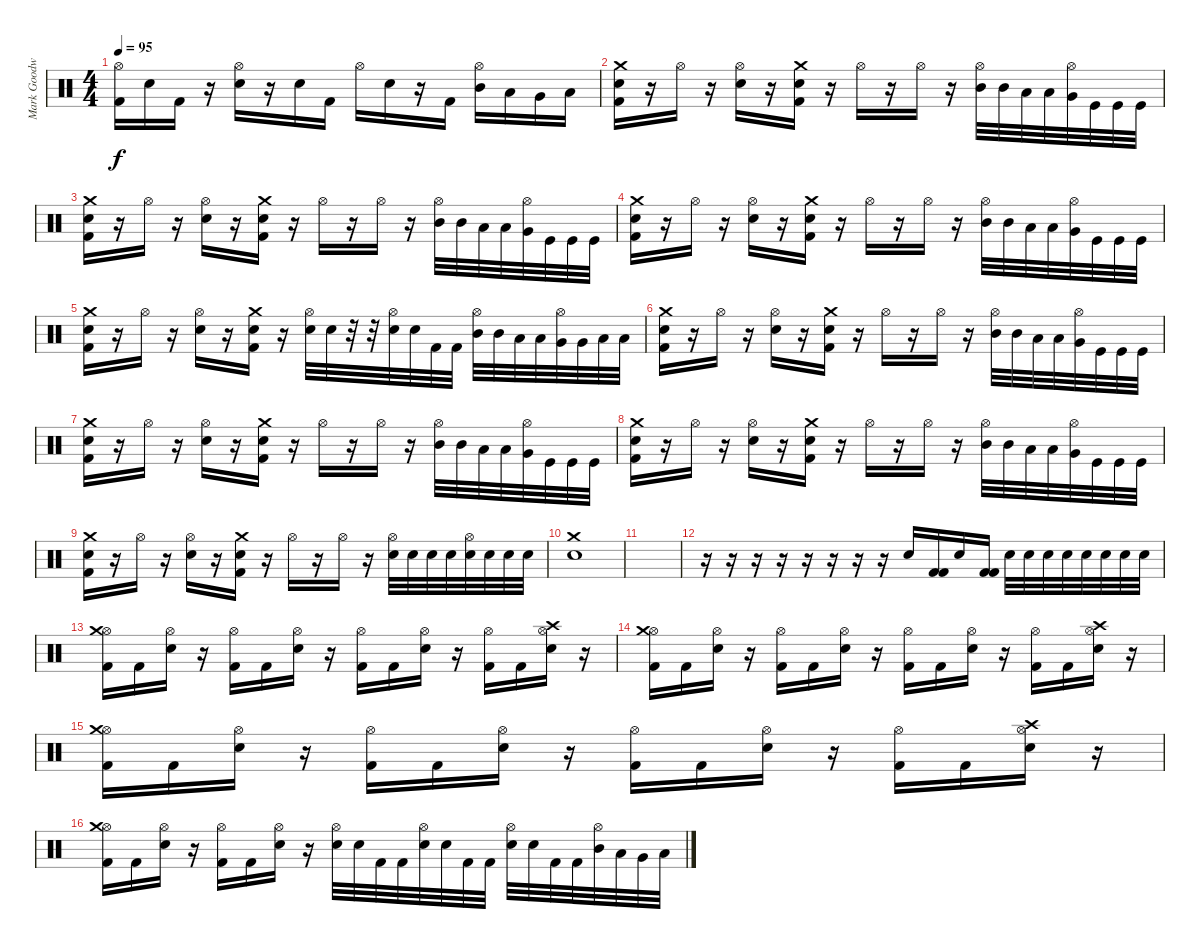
\track ("Mark Goodwin" "Mark Goodw") {instrument percussion}
\staff {score}
\articulation defaults
\ts (4 4)
\tempo 95
\clef neutral
\ks c
("Hi-Hat (open)" "Kick (hit) 2").16{dy f} "Electric Snare (hit)".16 "Kick (hit) 2".16 r.16 ("Hi-Hat (open)" "Electric Snare (hit)").16 r.16 "Electric Snare (hit)".16 "Kick (hit) 2".16 "Hi-Hat (open)".16 "Electric Snare (hit)".16 r.16 "Kick (hit) 2".16 ("Hi-Hat (open)" "Mid Tom (hit)").16 "Low Tom (hit)".16 "Very Low Tom (hit)".16 "Low Floor Tom (hit)".16 |
("Crash medium (hit)" "Electric Snare (hit)" "Kick (hit) 2").16 r.16 "Hi-Hat (open)".16 r.16 ("Hi-Hat (open)" "Electric Snare (hit)").16 r.16 ("Crash medium (hit)" "Electric Snare (hit)" "Kick (hit) 2").16 r.16 "Hi-Hat (open)".16 r.16 "Hi-Hat (open)".16 r.16 ("Hi-Hat (open)" "Mid Tom (hit)").32 "Mid Tom (hit)".32 "Low Tom (hit)".32 "Low Tom (hit)".32 ("Hi-Hat (open)" "Very Low Tom (hit)").32 "Kick (hit)".32 "Kick (hit)".32 "Kick (hit)".32 |
("Crash medium (hit)" "Electric Snare (hit)" "Kick (hit) 2").16 r.16 "Hi-Hat (open)".16 r.16 ("Hi-Hat (open)" "Electric Snare (hit)").16 r.16 ("Crash medium (hit)" "Electric Snare (hit)" "Kick (hit) 2").16 r.16 "Hi-Hat (open)".16 r.16 "Hi-Hat (open)".16 r.16 ("Hi-Hat (open)" "Mid Tom (hit)").32 "Mid Tom (hit)".32 "Low Tom (hit)".32 "Low Tom (hit)".32 ("Hi-Hat (open)" "Very Low Tom (hit)").32 "Kick (hit)".32 "Kick (hit)".32 "Kick (hit)".32 |
("Crash medium (hit)" "Electric Snare (hit)" "Kick (hit) 2").16 r.16 "Hi-Hat (open)".16 r.16 ("Hi-Hat (open)" "Electric Snare (hit)").16 r.16 ("Crash medium (hit)" "Electric Snare (hit)" "Kick (hit) 2").16 r.16 "Hi-Hat (open)".16 r.16 "Hi-Hat (open)".16 r.16 ("Hi-Hat (open)" "Mid Tom (hit)").32 "Mid Tom (hit)".32 "Low Tom (hit)".32 "Low Tom (hit)".32 ("Hi-Hat (open)" "Very Low Tom (hit)").32 "Kick (hit)".32 "Kick (hit)".32 "Kick (hit)".32 |
("Crash medium (hit)" "Electric Snare (hit)" "Kick (hit) 2").16 r.16 "Hi-Hat (open)".16 r.16 ("Hi-Hat (open)" "Electric Snare (hit)").16 r.16 ("Crash medium (hit)" "Electric Snare (hit)" "Kick (hit) 2").16 r.16 ("Hi-Hat (open)" "Electric Snare (hit)").32 "Electric Snare (hit)".32 r.32 r.32 ("Hi-Hat (open)" "Electric Snare (hit)").32 "Electric Snare (hit)".32 "Kick (hit) 2".32 "Kick (hit) 2".32 ("Hi-Hat (open)" "Mid Tom (hit)").32 "Mid Tom (hit)".32 "Low Tom (hit)".32 "Low Tom (hit)".32 ("Hi-Hat (open)" "Very Low Tom (hit)").32 "Very Low Tom (hit)".32 "Low Floor Tom (hit)".32 "Low Floor Tom (hit)".32 |
("Crash medium (hit)" "Electric Snare (hit)" "Kick (hit) 2").16 r.16 "Hi-Hat (open)".16 r.16 ("Hi-Hat (open)" "Electric Snare (hit)").16 r.16 ("Crash medium (hit)" "Electric Snare (hit)" "Kick (hit) 2").16 r.16 "Hi-Hat (open)".16 r.16 "Hi-Hat (open)".16 r.16 ("Hi-Hat (open)" "Mid Tom (hit)").32 "Mid Tom (hit)".32 "Low Tom (hit)".32 "Low Tom (hit)".32 ("Hi-Hat (open)" "Very Low Tom (hit)").32 "Kick (hit)".32 "Kick (hit)".32 "Kick (hit)".32 |
("Crash medium (hit)" "Electric Snare (hit)" "Kick (hit) 2").16 r.16 "Hi-Hat (open)".16 r.16 ("Hi-Hat (open)" "Electric Snare (hit)").16 r.16 ("Crash medium (hit)" "Electric Snare (hit)" "Kick (hit) 2").16 r.16 "Hi-Hat (open)".16 r.16 "Hi-Hat (open)".16 r.16 ("Hi-Hat (open)" "Mid Tom (hit)").32 "Mid Tom (hit)".32 "Low Tom (hit)".32 "Low Tom (hit)".32 ("Hi-Hat (open)" "Very Low Tom (hit)").32 "Kick (hit)".32 "Kick (hit)".32 "Kick (hit)".32 |
("Crash medium (hit)" "Electric Snare (hit)" "Kick (hit) 2").16 r.16 "Hi-Hat (open)".16 r.16 ("Hi-Hat (open)" "Electric Snare (hit)").16 r.16 ("Crash medium (hit)" "Electric Snare (hit)" "Kick (hit) 2").16 r.16 "Hi-Hat (open)".16 r.16 "Hi-Hat (open)".16 r.16 ("Hi-Hat (open)" "Mid Tom (hit)").32 "Mid Tom (hit)".32 "Low Tom (hit)".32 "Low Tom (hit)".32 ("Hi-Hat (open)" "Very Low Tom (hit)").32 "Kick (hit)".32 "Kick (hit)".32 "Kick (hit)".32 |
("Crash medium (hit)" "Electric Snare (hit)" "Kick (hit) 2").16 r.16 "Hi-Hat (open)".16 r.16 ("Hi-Hat (open)" "Electric Snare (hit)").16 r.16 ("Crash medium (hit)" "Electric Snare (hit)" "Kick (hit) 2").16 r.16 "Hi-Hat (open)".16 r.16 "Hi-Hat (open)".16 r.16 ("Hi-Hat (open)" "Electric Snare (hit)").32 "Electric Snare (hit)".32 "Electric Snare (hit)".32 "Electric Snare (hit)".32 ("Hi-Hat (open)" "Electric Snare (hit)").32 "Electric Snare (hit)".32 "Electric Snare (hit)".32 "Electric Snare (hit)".32 |
("Crash medium (hit)" "Electric Snare (hit)").1 |
|
r.16 r.16 r.16 r.16 r.16 r.16 r.16 r.16 "Electric Snare (hit)".16 ("Kick (hit) 2" "Kick (hit) 2").16 "Electric Snare (hit)".16 ("Kick (hit) 2" "Kick (hit) 2").16 "Electric Snare (hit)".32 "Electric Snare (hit)".32 "Electric Snare (hit)".32 "Electric Snare (hit)".32 "Electric Snare (hit)".32 "Electric Snare (hit)".32 "Electric Snare (hit)".32 "Electric Snare (hit)".32 |
("Hi-Hat (open)" "Crash medium (hit)" "Kick (hit) 2").16 "Kick (hit) 2".16 ("Hi-Hat (open)" "Electric Snare (hit)").16 r.16 ("Hi-Hat (open)" "Kick (hit) 2").16 "Kick (hit) 2".16 ("Hi-Hat (open)" "Electric Snare (hit)").16 r.16 ("Hi-Hat (open)" "Kick (hit) 2").16 "Kick (hit) 2".16 ("Hi-Hat (open)" "Electric Snare (hit)").16 r.16 ("Hi-Hat (open)" "Kick (hit) 2").16 "Kick (hit) 2".16 ("Hi-Hat (open)" "Crash high (hit)" "Electric Snare (hit)").16 r.16 |
("Hi-Hat (open)" "Crash medium (hit)" "Kick (hit) 2").16 "Kick (hit) 2".16 ("Hi-Hat (open)" "Electric Snare (hit)").16 r.16 ("Hi-Hat (open)" "Kick (hit) 2").16 "Kick (hit) 2".16 ("Hi-Hat (open)" "Electric Snare (hit)").16 r.16 ("Hi-Hat (open)" "Kick (hit) 2").16 "Kick (hit) 2".16 ("Hi-Hat (open)" "Electric Snare (hit)").16 r.16 ("Hi-Hat (open)" "Kick (hit) 2").16 "Kick (hit) 2".16 ("Hi-Hat (open)" "Crash high (hit)" "Electric Snare (hit)").16 r.16 |
("Hi-Hat (open)" "Crash medium (hit)" "Kick (hit) 2").16 "Kick (hit) 2".16 ("Hi-Hat (open)" "Electric Snare (hit)").16 r.16 ("Hi-Hat (open)" "Kick (hit) 2").16 "Kick (hit) 2".16 ("Hi-Hat (open)" "Electric Snare (hit)").16 r.16 ("Hi-Hat (open)" "Kick (hit) 2").16 "Kick (hit) 2".16 ("Hi-Hat (open)" "Electric Snare (hit)").16 r.16 ("Hi-Hat (open)" "Kick (hit) 2").16 "Kick (hit) 2".16 ("Hi-Hat (open)" "Crash high (hit)" "Electric Snare (hit)").16 r.16 |
("Hi-Hat (open)" "Crash medium (hit)" "Kick (hit) 2").16 "Kick (hit) 2".16 ("Hi-Hat (open)" "Electric Snare (hit)").16 r.16 ("Hi-Hat (open)" "Kick (hit) 2").16 "Kick (hit) 2".16 ("Hi-Hat (open)" "Electric Snare (hit)").16 r.16 ("Hi-Hat (open)" "Electric Snare (hit)").32 "Electric Snare (hit)".32 "Kick (hit) 2".32 "Kick (hit) 2".32 ("Hi-Hat (open)" "Electric Snare (hit)").32 "Electric Snare (hit)".32 "Kick (hit) 2".32 "Kick (hit) 2".32 ("Hi-Hat (open)" "Electric Snare (hit)").32 "Electric Snare (hit)".32 "Kick (hit) 2".32 "Kick (hit) 2".32 ("Hi-Hat (open)" "Mid Tom (hit)").32 "Low Tom (hit)".32 "Very Low Tom (hit)".32 "Low Floor Tom (hit)".32
